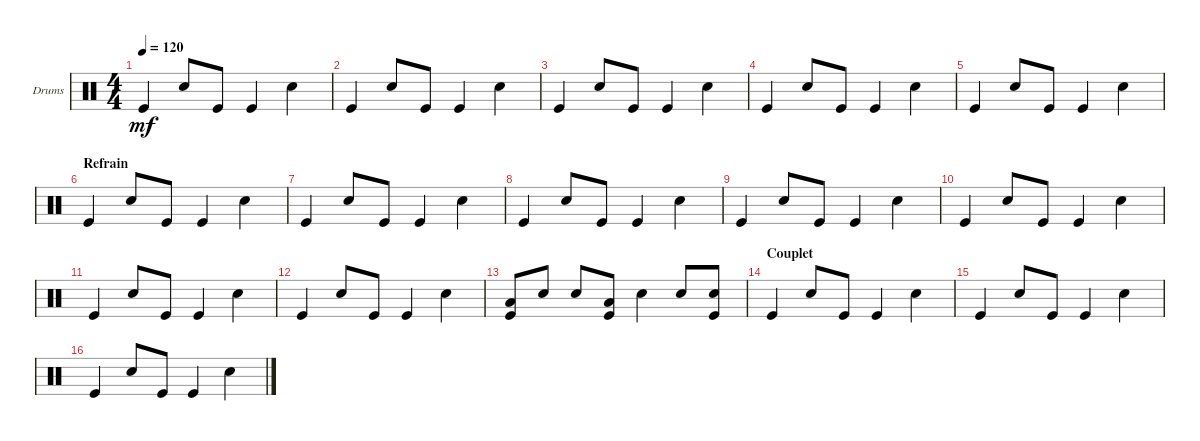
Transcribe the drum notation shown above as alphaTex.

\defaultSystemsLayout 4
\bracketExtendMode groupsimilarinstruments
\firstSystemTrackNameOrientation horizontal
\otherSystemsTrackNameOrientation horizontal
\track ("Drumkit" "Drums") {multiBarRest instrument percussion}
\staff {score}
\articulation defaults
\ts (4 4)
\tempo 120
\clef neutral
\ks c "Kick (hit)".4{dy mf} "Snare (hit) 2".8 "Kick (hit)".8 "Kick (hit)".4 "Snare (hit) 2".4
|
"Kick (hit)".4 "Snare (hit) 2".8 "Kick (hit)".8 "Kick (hit)".4 "Snare (hit) 2".4 |
"Kick (hit)".4 "Snare (hit) 2".8 "Kick (hit)".8 "Kick (hit)".4 "Snare (hit) 2".4 |
"Kick (hit)".4 "Snare (hit) 2".8 "Kick (hit)".8 "Kick (hit)".4 "Snare (hit) 2".4 |
"Kick (hit)".4 "Snare (hit) 2".8 "Kick (hit)".8 "Kick (hit)".4 "Snare (hit) 2".4 |
\section ("" "Refrain")
"Kick (hit)".4 "Snare (hit) 2".8 "Kick (hit)".8 "Kick (hit)".4 "Snare (hit) 2".4 |
"Kick (hit)".4 "Snare (hit) 2".8 "Kick (hit)".8 "Kick (hit)".4 "Snare (hit) 2".4 |
"Kick (hit)".4 "Snare (hit) 2".8 "Kick (hit)".8 "Kick (hit)".4 "Snare (hit) 2".4 |
"Kick (hit)".4 "Snare (hit) 2".8 "Kick (hit)".8 "Kick (hit)".4 "Snare (hit) 2".4 |
"Kick (hit)".4 "Snare (hit) 2".8 "Kick (hit)".8 "Kick (hit)".4 "Snare (hit) 2".4 |
"Kick (hit)".4 "Snare (hit) 2".8 "Kick (hit)".8 "Kick (hit)".4 "Snare (hit) 2".4 |
"Kick (hit)".4 "Snare (hit) 2".8 "Kick (hit)".8 "Kick (hit)".4 "Snare (hit) 2".4 |
("Kick (hit)" "Low Tom (hit)").8 "Snare (hit) 2".8 "Snare (hit) 2".8 ("Kick (hit)" "Low Tom (hit)").8 "Snare (hit) 2".4 "Snare (hit) 2".8 ("Snare (hit) 2" "Kick (hit)").8 |
\section ("" "Couplet")
"Kick (hit)".4 "Snare (hit) 2".8 "Kick (hit)".8 "Kick (hit)".4 "Snare (hit) 2".4 |
"Kick (hit)".4 "Snare (hit) 2".8 "Kick (hit)".8 "Kick (hit)".4 "Snare (hit) 2".4 |
"Kick (hit)".4 "Snare (hit) 2".8 "Kick (hit)".8 "Kick (hit)".4 "Snare (hit) 2".4
